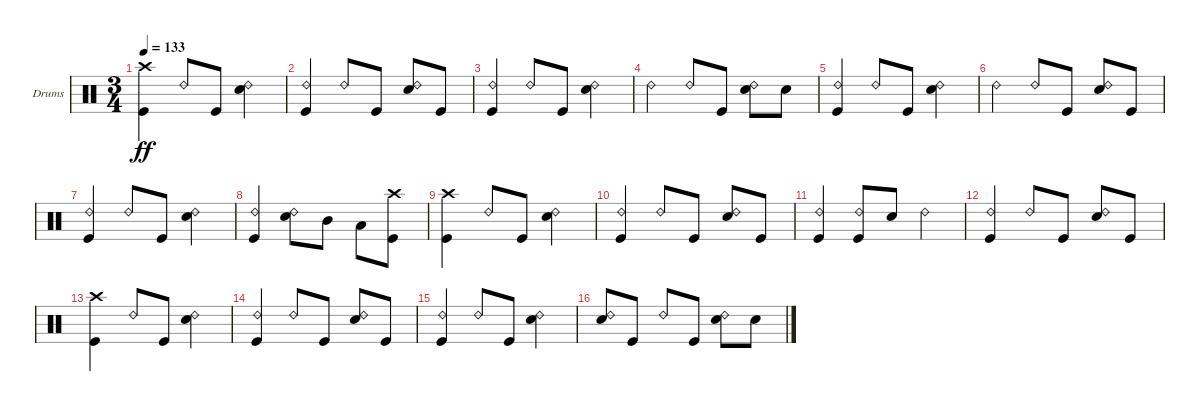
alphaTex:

\bracketExtendMode groupsimilarinstruments
\firstSystemTrackNameOrientation horizontal
\otherSystemsTrackNameOrientation horizontal
\track ("Drumkit" "Drums") {instrument percussion}
\staff {score}
\articulation defaults
\ts (3 4)
\tempo 133
\clef neutral
\ks c
("Crash high (hit)" "Kick (hit)").4{dy ff} "Ride (bell) 2".8 "Kick (hit)".8 ("Ride (bell) 2" "Snare (hit) 2").4 |
("Ride (bell) 2" "Kick (hit)").4 "Ride (bell) 2".8 "Kick (hit)".8 ("Ride (bell) 2" "Snare (hit) 2").8 "Kick (hit)".8 |
("Ride (bell) 2" "Kick (hit)").4 "Ride (bell) 2".8 "Kick (hit)".8 ("Ride (bell) 2" "Snare (hit) 2").4 |
"Ride (bell) 2".4 "Ride (bell) 2".8 "Kick (hit)".8 ("Ride (bell) 2" "Snare (hit) 2").8 "Snare (hit) 2".8 |
("Ride (bell) 2" "Kick (hit)").4 "Ride (bell) 2".8 "Kick (hit)".8 ("Ride (bell) 2" "Snare (hit) 2").4 |
"Ride (bell) 2".4 "Ride (bell) 2".8 "Kick (hit)".8 ("Ride (bell) 2" "Snare (hit) 2").8 "Kick (hit)".8 |
("Ride (bell) 2" "Kick (hit)").4 "Ride (bell) 2".8 "Kick (hit)".8 ("Ride (bell) 2" "Snare (hit) 2").4 |
("Ride (bell) 2" "Kick (hit)").4 ("Ride (bell) 2" "Snare (hit) 2").8 "Mid Tom (hit)".8 "Low Tom (hit)".8 ("Kick (hit)" "Crash high (hit)").8 |
("Kick (hit)" "Crash high (hit)").4 "Ride (bell) 2".8 "Kick (hit)".8 ("Snare (hit) 2" "Ride (bell) 2").4 |
("Ride (bell) 2" "Kick (hit)").4 "Ride (bell) 2".8 "Kick (hit)".8 ("Ride (bell) 2" "Snare (hit) 2").8 "Kick (hit)".8 |
("Ride (bell) 2" "Kick (hit)").4 ("Ride (bell) 2" "Kick (hit)").8 "Snare (hit) 2".8 "Ride (bell) 2".4 |
("Ride (bell) 2" "Kick (hit)").4 "Ride (bell) 2".8 "Kick (hit)".8 ("Ride (bell) 2" "Snare (hit) 2").8 "Kick (hit)".8 |
("Kick (hit)" "Crash high (hit)").4 "Ride (bell) 2".8 "Kick (hit)".8 ("Snare (hit) 2" "Ride (bell) 2").4 |
("Ride (bell) 2" "Kick (hit)").4 "Ride (bell) 2".8 "Kick (hit)".8 ("Ride (bell) 2" "Snare (hit) 2").8 "Kick (hit)".8 |
("Kick (hit)" "Ride (bell) 2").4 "Ride (bell) 2".8 "Kick (hit)".8 ("Snare (hit) 2" "Ride (bell) 2").4 |
("Ride (bell) 2" "Snare (hit) 2").8 "Kick (hit)".8 "Ride (bell) 2".8 "Kick (hit)".8 ("Ride (bell) 2" "Snare (hit) 2").8 "Snare (hit) 2".8
